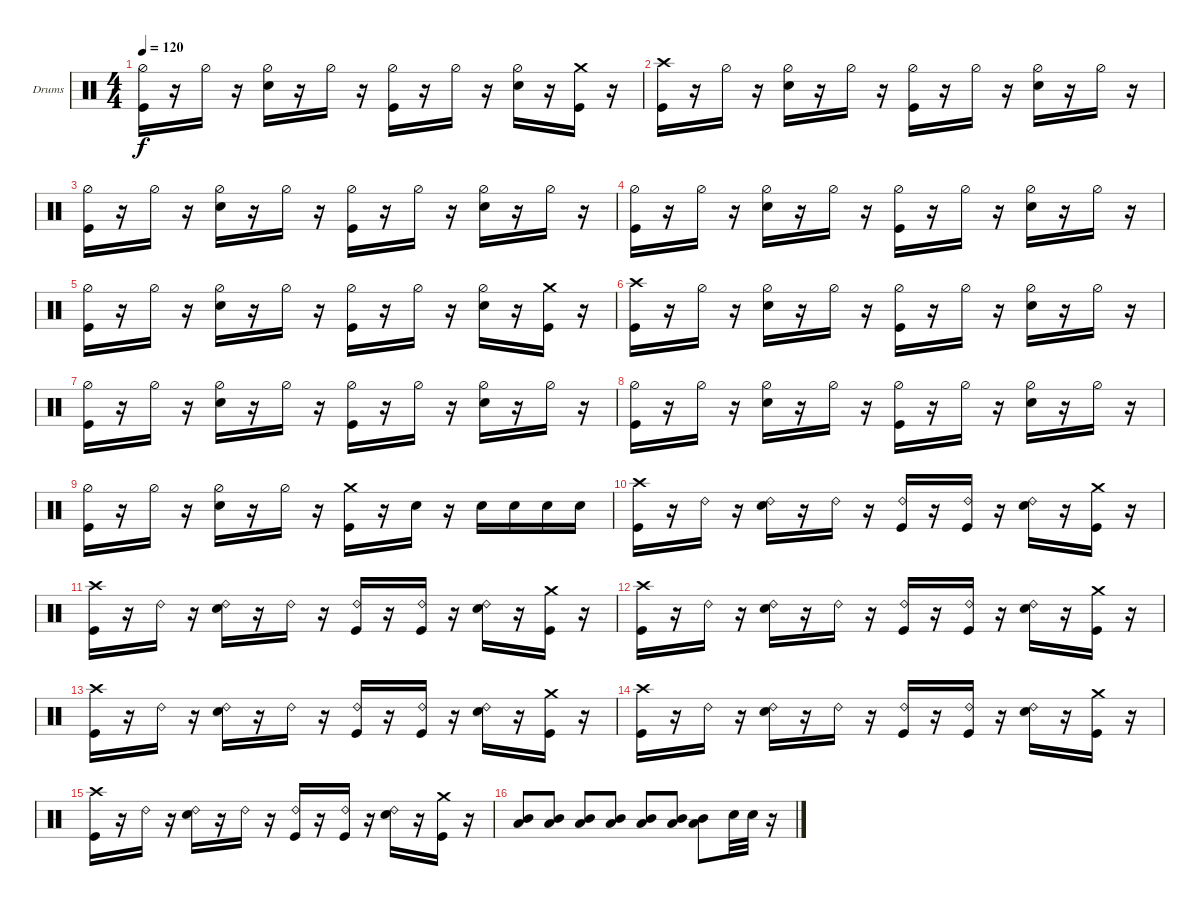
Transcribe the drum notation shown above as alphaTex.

\defaultSystemsLayout 4
\bracketExtendMode groupsimilarinstruments
\firstSystemTrackNameOrientation horizontal
\otherSystemsTrackNameOrientation horizontal
\track ("Drums  SK" "Drums") {instrument percussion}
\staff {score}
\articulation defaults
\ts (4 4)
\tempo 120
\clef neutral
\ks c
("Kick (hit)" "Hi-Hat (half)").16{dy f} r.16 "Hi-Hat (half)".16 r.16 ("Snare (hit) 2" "Hi-Hat (half)").16 r.16 "Hi-Hat (half)".16 r.16 ("Kick (hit)" "Hi-Hat (half)").16 r.16 "Hi-Hat (half)".16 r.16 ("Snare (hit) 2" "Hi-Hat (half)").16 r.16 ("Kick (hit)" "Crash medium (hit)").16 r.16 |
("Kick (hit)" "Crash high (hit)").16 r.16 "Hi-Hat (half)".16 r.16 ("Snare (hit) 2" "Hi-Hat (half)").16 r.16 "Hi-Hat (half)".16 r.16 ("Kick (hit)" "Hi-Hat (half)").16 r.16 "Hi-Hat (half)".16 r.16 ("Snare (hit) 2" "Hi-Hat (half)").16 r.16 "Hi-Hat (half)".16 r.16 |
("Kick (hit)" "Hi-Hat (half)").16 r.16 "Hi-Hat (half)".16 r.16 ("Snare (hit) 2" "Hi-Hat (half)").16 r.16 "Hi-Hat (half)".16 r.16 ("Kick (hit)" "Hi-Hat (half)").16 r.16 "Hi-Hat (half)".16 r.16 ("Snare (hit) 2" "Hi-Hat (half)").16 r.16 "Hi-Hat (half)".16 r.16 |
("Kick (hit)" "Hi-Hat (half)").16 r.16 "Hi-Hat (half)".16 r.16 ("Snare (hit) 2" "Hi-Hat (half)").16 r.16 "Hi-Hat (half)".16 r.16 ("Kick (hit)" "Hi-Hat (half)").16 r.16 "Hi-Hat (half)".16 r.16 ("Snare (hit) 2" "Hi-Hat (half)").16 r.16 "Hi-Hat (half)".16 r.16 |
("Kick (hit)" "Hi-Hat (half)").16 r.16 "Hi-Hat (half)".16 r.16 ("Snare (hit) 2" "Hi-Hat (half)").16 r.16 "Hi-Hat (half)".16 r.16 ("Kick (hit)" "Hi-Hat (half)").16 r.16 "Hi-Hat (half)".16 r.16 ("Snare (hit) 2" "Hi-Hat (half)").16 r.16 ("Kick (hit)" "Crash medium (hit)").16 r.16 |
("Kick (hit)" "Crash high (hit)").16 r.16 "Hi-Hat (half)".16 r.16 ("Snare (hit) 2" "Hi-Hat (half)").16 r.16 "Hi-Hat (half)".16 r.16 ("Kick (hit)" "Hi-Hat (half)").16 r.16 "Hi-Hat (half)".16 r.16 ("Snare (hit) 2" "Hi-Hat (half)").16 r.16 "Hi-Hat (half)".16 r.16 |
("Kick (hit)" "Hi-Hat (half)").16 r.16 "Hi-Hat (half)".16 r.16 ("Snare (hit) 2" "Hi-Hat (half)").16 r.16 "Hi-Hat (half)".16 r.16 ("Kick (hit)" "Hi-Hat (half)").16 r.16 "Hi-Hat (half)".16 r.16 ("Snare (hit) 2" "Hi-Hat (half)").16 r.16 "Hi-Hat (half)".16 r.16 |
("Kick (hit)" "Hi-Hat (half)").16 r.16 "Hi-Hat (half)".16 r.16 ("Snare (hit) 2" "Hi-Hat (half)").16 r.16 "Hi-Hat (half)".16 r.16 ("Kick (hit)" "Hi-Hat (half)").16 r.16 "Hi-Hat (half)".16 r.16 ("Snare (hit) 2" "Hi-Hat (half)").16 r.16 "Hi-Hat (half)".16 r.16 |
("Kick (hit)" "Hi-Hat (half)").16 r.16 "Hi-Hat (half)".16 r.16 ("Snare (hit) 2" "Hi-Hat (half)").16 r.16 "Hi-Hat (half)".16 r.16 ("Kick (hit)" "Crash medium (hit)").16 r.16 "Snare (hit) 2".16 r.16 "Snare (hit) 2".16 "Snare (hit) 2".16 "Snare (hit) 2".16 "Snare (hit) 2".16 |
("Kick (hit)" "Crash high (hit)").16 r.16 "Ride (bell) 2".16 r.16 ("Snare (hit) 2" "Ride (bell) 2").16 r.16 "Ride (bell) 2".16 r.16 ("Kick (hit)" "Ride (bell) 2").16 r.16 ("Kick (hit)" "Ride (bell) 2").16 r.16 ("Snare (hit) 2" "Ride (bell) 2").16 r.16 ("Kick (hit)" "Crash medium (hit)").16 r.16 |
("Kick (hit)" "Crash high (hit)").16 r.16 "Ride (bell) 2".16 r.16 ("Snare (hit) 2" "Ride (bell) 2").16 r.16 "Ride (bell) 2".16 r.16 ("Kick (hit)" "Ride (bell) 2").16 r.16 ("Kick (hit)" "Ride (bell) 2").16 r.16 ("Snare (hit) 2" "Ride (bell) 2").16 r.16 ("Kick (hit)" "Crash medium (hit)").16 r.16 |
("Kick (hit)" "Crash high (hit)").16 r.16 "Ride (bell) 2".16 r.16 ("Snare (hit) 2" "Ride (bell) 2").16 r.16 "Ride (bell) 2".16 r.16 ("Kick (hit)" "Ride (bell) 2").16 r.16 ("Kick (hit)" "Ride (bell) 2").16 r.16 ("Snare (hit) 2" "Ride (bell) 2").16 r.16 ("Kick (hit)" "Crash medium (hit)").16 r.16 |
("Kick (hit)" "Crash high (hit)").16 r.16 "Ride (bell) 2".16 r.16 ("Snare (hit) 2" "Ride (bell) 2").16 r.16 "Ride (bell) 2".16 r.16 ("Kick (hit)" "Ride (bell) 2").16 r.16 ("Kick (hit)" "Ride (bell) 2").16 r.16 ("Snare (hit) 2" "Ride (bell) 2").16 r.16 ("Kick (hit)" "Crash medium (hit)").16 r.16 |
("Kick (hit)" "Crash high (hit)").16 r.16 "Ride (bell) 2".16 r.16 ("Snare (hit) 2" "Ride (bell) 2").16 r.16 "Ride (bell) 2".16 r.16 ("Kick (hit)" "Ride (bell) 2").16 r.16 ("Kick (hit)" "Ride (bell) 2").16 r.16 ("Snare (hit) 2" "Ride (bell) 2").16 r.16 ("Kick (hit)" "Crash medium (hit)").16 r.16 |
("Kick (hit)" "Crash high (hit)").16 r.16 "Ride (bell) 2".16 r.16 ("Snare (hit) 2" "Ride (bell) 2").16 r.16 "Ride (bell) 2".16 r.16 ("Kick (hit)" "Ride (bell) 2").16 r.16 ("Kick (hit)" "Ride (bell) 2").16 r.16 ("Snare (hit) 2" "Ride (bell) 2").16 r.16 ("Kick (hit)" "Crash medium (hit)").16 r.16 |
("Low Tom (hit)" "Mid Tom (hit)").8 ("Low Tom (hit)" "Mid Tom (hit)").8 ("Low Tom (hit)" "Mid Tom (hit)").8 ("Low Tom (hit)" "Mid Tom (hit)").8 ("Low Tom (hit)" "Mid Tom (hit)").8 ("Low Tom (hit)" "Mid Tom (hit)").8 ("Low Tom (hit)" "Mid Tom (hit)").8 "Snare (hit) 2".32 "Snare (hit) 2".32 r.16
